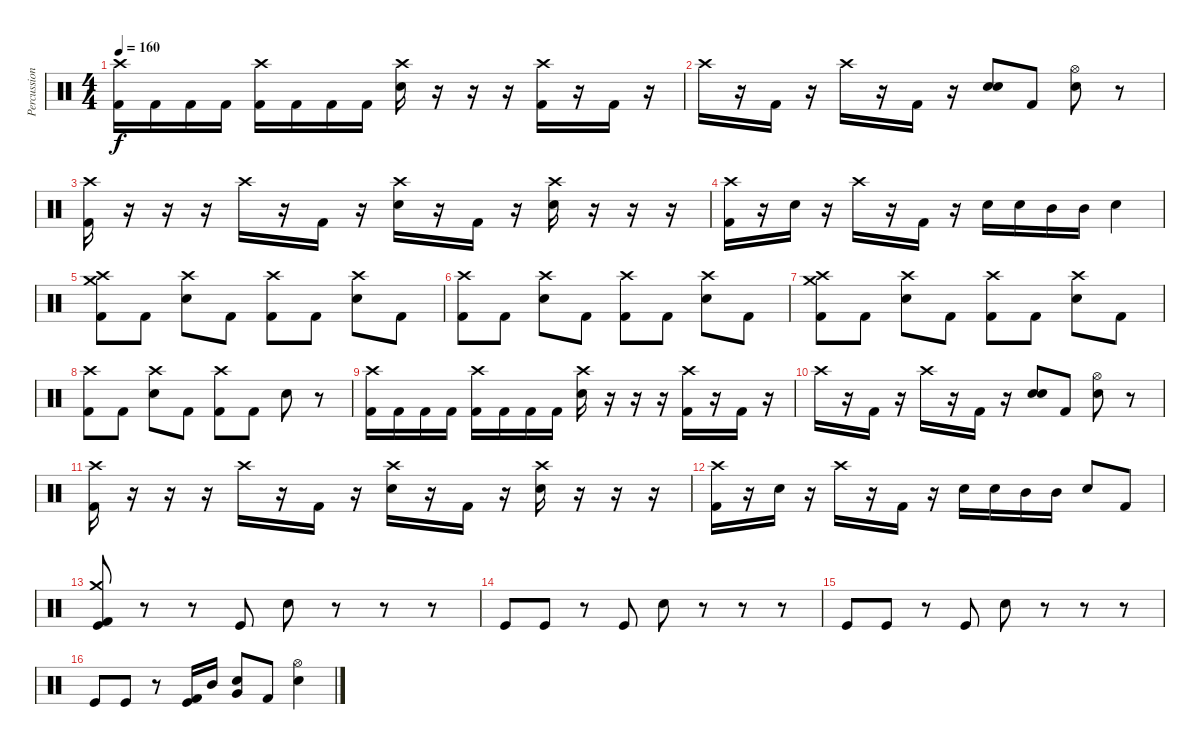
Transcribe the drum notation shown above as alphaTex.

\track ("Percussion" "Percussion") {instrument percussion}
\staff {score}
\articulation defaults
\ts (4 4)
\tempo 160
\clef neutral
\ks c
("Crash high (hit)" "Kick (hit) 2").16{dy f} "Kick (hit) 2".16 "Kick (hit) 2".16 "Kick (hit) 2".16 ("Crash high (hit)" "Kick (hit) 2").16 "Kick (hit) 2".16 "Kick (hit) 2".16 "Kick (hit) 2".16 ("Crash high (hit)" "Snare (hit) 2").16 r.16 r.16 r.16 ("Crash high (hit)" "Kick (hit) 2").16 r.16 "Kick (hit) 2".16 r.16 |
"Crash high (hit)".16 r.16 "Kick (hit) 2".16 r.16 "Crash high (hit)".16 r.16 "Kick (hit) 2".16 r.16 ("Snare (hit) 2" "Snare (hit) 2").8{bd 240} "Kick (hit) 2".8 ("Hi-Hat (open)" "Snare (hit) 2").8 r.8 |
("Crash high (hit)" "Kick (hit) 2").16 r.16 r.16 r.16 "Crash high (hit)".16 r.16 "Kick (hit) 2".16 r.16 ("Crash high (hit)" "Snare (hit) 2").16 r.16 "Kick (hit) 2".16 r.16 ("Crash high (hit)" "Snare (hit) 2").16 r.16 r.16 r.16 |
("Crash high (hit)" "Kick (hit) 2").16 r.16 "Snare (hit) 2".16 r.16 "Crash high (hit)".16 r.16 "Kick (hit) 2".16 r.16 "Snare (hit) 2".16 "Snare (hit) 2".16 "Mid Tom (hit)".16 "Mid Tom (hit)".16 "Snare (hit) 2".4 |
("Crash high (hit)" "Crash medium (hit)" "Kick (hit) 2").8 "Kick (hit) 2".8 ("Crash high (hit)" "Snare (hit) 2").8 "Kick (hit) 2".8 ("Crash high (hit)" "Kick (hit) 2").8 "Kick (hit) 2".8 ("Crash high (hit)" "Snare (hit) 2").8 "Kick (hit) 2".8 |
("Crash high (hit)" "Kick (hit) 2").8 "Kick (hit) 2".8 ("Crash high (hit)" "Snare (hit) 2").8 "Kick (hit) 2".8 ("Crash high (hit)" "Kick (hit) 2").8 "Kick (hit) 2".8 ("Crash high (hit)" "Snare (hit) 2").8 "Kick (hit) 2".8 |
("Crash high (hit)" "Crash medium (hit)" "Kick (hit) 2").8 "Kick (hit) 2".8 ("Crash high (hit)" "Snare (hit) 2").8 "Kick (hit) 2".8 ("Crash high (hit)" "Kick (hit) 2").8 "Kick (hit) 2".8 ("Crash high (hit)" "Snare (hit) 2").8 "Kick (hit) 2".8 |
("Crash high (hit)" "Kick (hit) 2").8 "Kick (hit) 2".8 ("Crash high (hit)" "Snare (hit) 2").8 "Kick (hit) 2".8 ("Crash high (hit)" "Kick (hit) 2").8 "Kick (hit) 2".8 "Snare (hit) 2".8 r.8 |
("Crash high (hit)" "Kick (hit) 2").16 "Kick (hit) 2".16 "Kick (hit) 2".16 "Kick (hit) 2".16 ("Crash high (hit)" "Kick (hit) 2").16 "Kick (hit) 2".16 "Kick (hit) 2".16 "Kick (hit) 2".16 ("Crash high (hit)" "Snare (hit) 2").16 r.16 r.16 r.16 ("Crash high (hit)" "Kick (hit) 2").16 r.16 "Kick (hit) 2".16 r.16 |
"Crash high (hit)".16 r.16 "Kick (hit) 2".16 r.16 "Crash high (hit)".16 r.16 "Kick (hit) 2".16 r.16 ("Snare (hit) 2" "Snare (hit) 2").8{bd 240} "Kick (hit) 2".8 ("Hi-Hat (open)" "Snare (hit) 2").8 r.8 |
("Crash high (hit)" "Kick (hit) 2").16 r.16 r.16 r.16 "Crash high (hit)".16 r.16 "Kick (hit) 2".16 r.16 ("Crash high (hit)" "Snare (hit) 2").16 r.16 "Kick (hit) 2".16 r.16 ("Crash high (hit)" "Snare (hit) 2").16 r.16 r.16 r.16 |
("Crash high (hit)" "Kick (hit) 2").16 r.16 "Snare (hit) 2".16 r.16 "Crash high (hit)".16 r.16 "Kick (hit) 2".16 r.16 "Snare (hit) 2".16 "Snare (hit) 2".16 "Mid Tom (hit)".16 "Mid Tom (hit)".16 "Snare (hit) 2".8 "Kick (hit) 2".8 |
("Crash medium (hit)" "Kick (hit)" "Kick (hit) 2").8 r.8 r.8 "Kick (hit)".8 "Electric Snare (hit)".8 r.8 r.8 r.8 |
"Kick (hit)".8 "Kick (hit)".8 r.8 "Kick (hit)".8 "Electric Snare (hit)".8 r.8 r.8 r.8 |
"Kick (hit)".8 "Kick (hit)".8 r.8 "Kick (hit)".8 "Electric Snare (hit)".8 r.8 r.8 r.8 |
"Kick (hit)".8 "Kick (hit)".8 r.8 ("Kick (hit)" "Kick (hit) 2").16 "Mid Tom (hit)".16 ("Electric Snare (hit)" "Very Low Tom (hit)").8 "Kick (hit) 2".8 ("Hi-Hat (open)" "Snare (hit) 2").4
